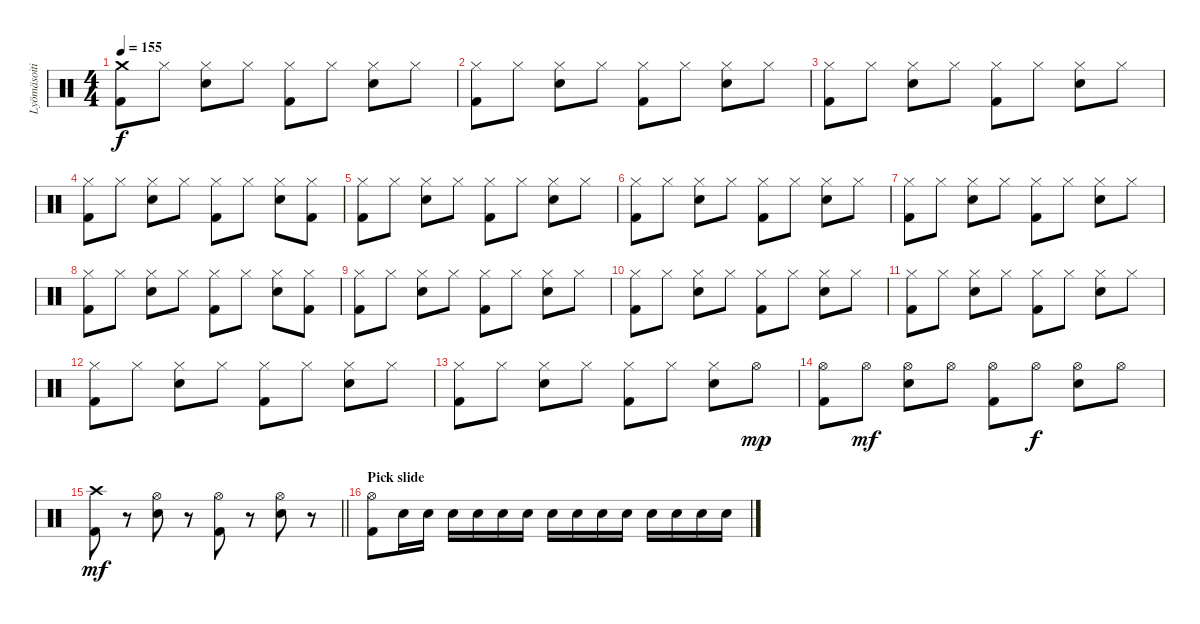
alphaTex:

\track ("Lyömäsoitin" "Lyömäsoiti") {instrument percussion}
\staff {score}
\articulation defaults
\ts (4 4)
\tempo 155
\clef neutral
\ks c
("Crash medium (hit)" "Kick (hit) 2").8{dy f} "Hi-Hat (closed)".8 ("Hi-Hat (closed)" "Snare (hit) 2").8 "Hi-Hat (closed)".8 ("Hi-Hat (closed)" "Kick (hit) 2").8 "Hi-Hat (closed)".8 ("Hi-Hat (closed)" "Snare (hit) 2").8 "Hi-Hat (closed)".8 |
("Hi-Hat (closed)" "Kick (hit) 2").8 "Hi-Hat (closed)".8 ("Hi-Hat (closed)" "Snare (hit) 2").8 "Hi-Hat (closed)".8 ("Hi-Hat (closed)" "Kick (hit) 2").8 "Hi-Hat (closed)".8 ("Hi-Hat (closed)" "Snare (hit) 2").8 "Hi-Hat (closed)".8 |
("Hi-Hat (closed)" "Kick (hit) 2").8 "Hi-Hat (closed)".8 ("Hi-Hat (closed)" "Snare (hit) 2").8 "Hi-Hat (closed)".8 ("Hi-Hat (closed)" "Kick (hit) 2").8 "Hi-Hat (closed)".8 ("Hi-Hat (closed)" "Snare (hit) 2").8 "Hi-Hat (closed)".8 |
("Hi-Hat (closed)" "Kick (hit) 2").8 "Hi-Hat (closed)".8 ("Hi-Hat (closed)" "Snare (hit) 2").8 "Hi-Hat (closed)".8 ("Hi-Hat (closed)" "Kick (hit) 2").8 "Hi-Hat (closed)".8 ("Hi-Hat (closed)" "Snare (hit) 2").8 ("Hi-Hat (closed)" "Kick (hit) 2").8 |
("Hi-Hat (closed)" "Kick (hit) 2").8 "Hi-Hat (closed)".8 ("Hi-Hat (closed)" "Snare (hit) 2").8 "Hi-Hat (closed)".8 ("Hi-Hat (closed)" "Kick (hit) 2").8 "Hi-Hat (closed)".8 ("Hi-Hat (closed)" "Snare (hit) 2").8 "Hi-Hat (closed)".8 |
("Hi-Hat (closed)" "Kick (hit) 2").8 "Hi-Hat (closed)".8 ("Hi-Hat (closed)" "Snare (hit) 2").8 "Hi-Hat (closed)".8 ("Hi-Hat (closed)" "Kick (hit) 2").8 "Hi-Hat (closed)".8 ("Hi-Hat (closed)" "Snare (hit) 2").8 "Hi-Hat (closed)".8 |
("Hi-Hat (closed)" "Kick (hit) 2").8 "Hi-Hat (closed)".8 ("Hi-Hat (closed)" "Snare (hit) 2").8 "Hi-Hat (closed)".8 ("Hi-Hat (closed)" "Kick (hit) 2").8 "Hi-Hat (closed)".8 ("Hi-Hat (closed)" "Snare (hit) 2").8 "Hi-Hat (closed)".8 |
("Hi-Hat (closed)" "Kick (hit) 2").8 "Hi-Hat (closed)".8 ("Hi-Hat (closed)" "Snare (hit) 2").8 "Hi-Hat (closed)".8 ("Hi-Hat (closed)" "Kick (hit) 2").8 "Hi-Hat (closed)".8 ("Hi-Hat (closed)" "Snare (hit) 2").8 ("Hi-Hat (closed)" "Kick (hit) 2").8 |
("Hi-Hat (closed)" "Kick (hit) 2").8 "Hi-Hat (closed)".8 ("Hi-Hat (closed)" "Snare (hit) 2").8 "Hi-Hat (closed)".8 ("Hi-Hat (closed)" "Kick (hit) 2").8 "Hi-Hat (closed)".8 ("Hi-Hat (closed)" "Snare (hit) 2").8 "Hi-Hat (closed)".8 |
("Hi-Hat (closed)" "Kick (hit) 2").8 "Hi-Hat (closed)".8 ("Hi-Hat (closed)" "Snare (hit) 2").8 "Hi-Hat (closed)".8 ("Hi-Hat (closed)" "Kick (hit) 2").8 "Hi-Hat (closed)".8 ("Hi-Hat (closed)" "Snare (hit) 2").8 "Hi-Hat (closed)".8 |
("Hi-Hat (closed)" "Kick (hit) 2").8 "Hi-Hat (closed)".8 ("Hi-Hat (closed)" "Snare (hit) 2").8 "Hi-Hat (closed)".8 ("Hi-Hat (closed)" "Kick (hit) 2").8 "Hi-Hat (closed)".8 ("Hi-Hat (closed)" "Snare (hit) 2").8 "Hi-Hat (closed)".8 |
("Hi-Hat (closed)" "Kick (hit) 2").8 "Hi-Hat (closed)".8 ("Hi-Hat (closed)" "Snare (hit) 2").8 "Hi-Hat (closed)".8 ("Hi-Hat (closed)" "Kick (hit) 2").8 "Hi-Hat (closed)".8 ("Hi-Hat (closed)" "Snare (hit) 2").8 "Hi-Hat (closed)".8 |
("Hi-Hat (closed)" "Kick (hit) 2").8 "Hi-Hat (closed)".8 ("Hi-Hat (closed)" "Snare (hit) 2").8 "Hi-Hat (closed)".8 ("Hi-Hat (closed)" "Kick (hit) 2").8 "Hi-Hat (closed)".8 ("Hi-Hat (closed)" "Snare (hit) 2").8 "Hi-Hat (open)".8{dy mp} |
("Hi-Hat (open)" "Kick (hit) 2").8 "Hi-Hat (open)".8{dy mf} ("Hi-Hat (open)" "Snare (hit) 2").8 "Hi-Hat (open)".8 ("Hi-Hat (open)" "Kick (hit) 2").8 "Hi-Hat (open)".8{dy f} ("Hi-Hat (open)" "Snare (hit) 2").8 "Hi-Hat (open)".8 |
\barLineRight lightlight
("Crash high (hit)" "Kick (hit) 2").8{dy mf} r.8 ("Hi-Hat (open)" "Snare (hit) 2").8 r.8 ("Hi-Hat (open)" "Kick (hit) 2").8 r.8 ("Hi-Hat (open)" "Snare (hit) 2").8 r.8 |
\section ("" "Pick slide")
("Hi-Hat (open)" "Kick (hit) 2").8 "Snare (hit) 2".16 "Snare (hit) 2".16 "Snare (hit) 2".16 "Snare (hit) 2".16 "Snare (hit) 2".16 "Snare (hit) 2".16 "Snare (hit) 2".16 "Snare (hit) 2".16 "Snare (hit) 2".16 "Snare (hit) 2".16 "Snare (hit) 2".16 "Snare (hit) 2".16 "Snare (hit) 2".16 "Snare (hit) 2".16
